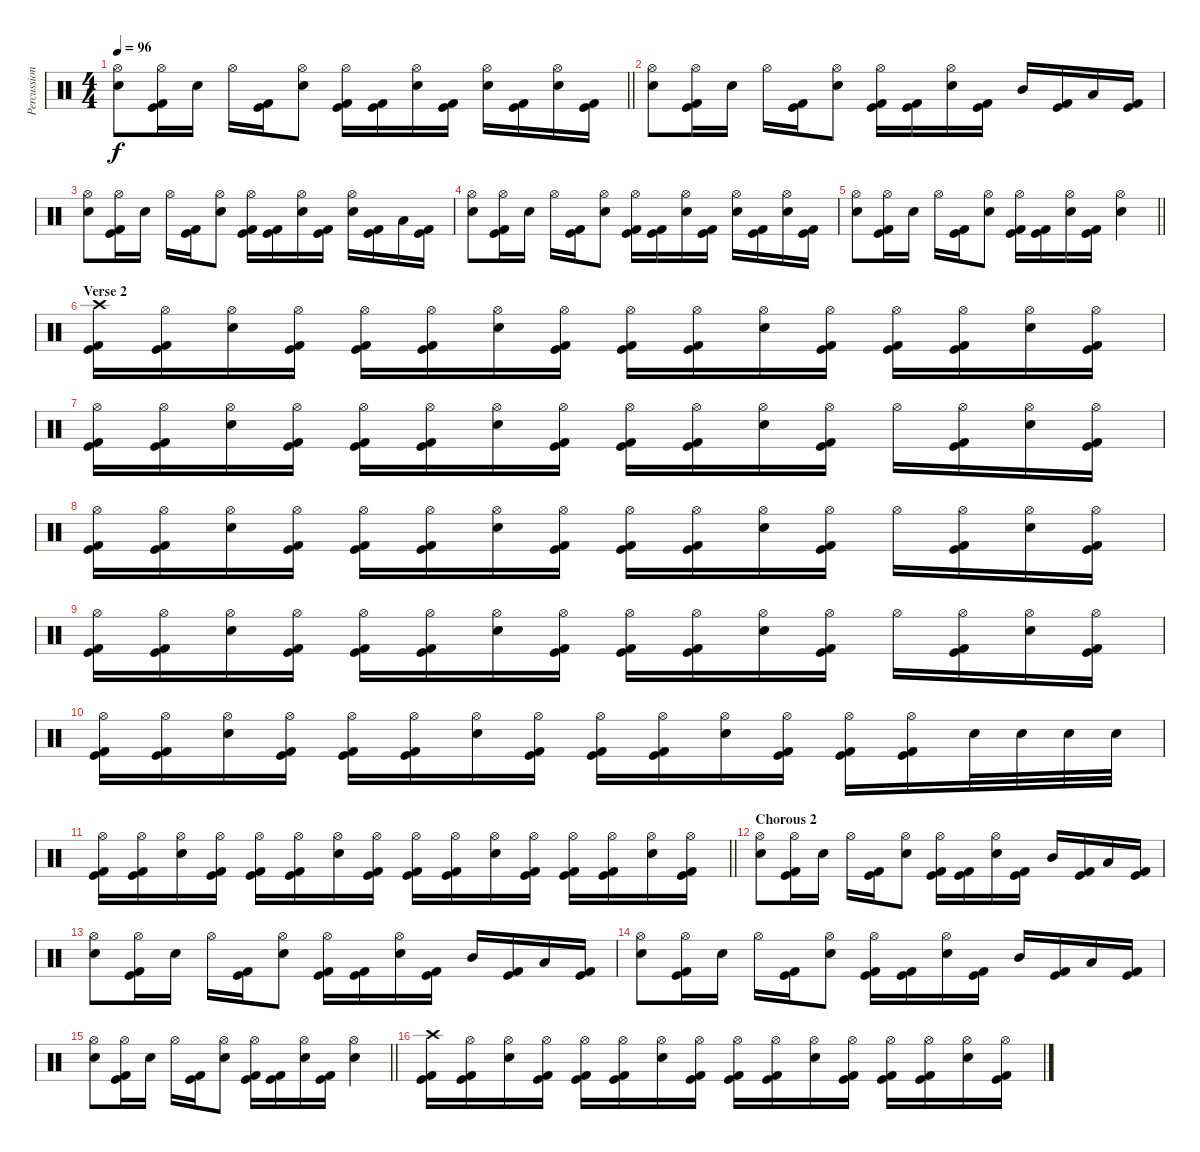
\track ("Percussion" "Percussion") {instrument percussion}
\staff {score}
\articulation defaults
\ts (4 4)
\tempo 96
\clef neutral
\barLineRight lightlight
\ks c
("Hi-Hat (open)" "Electric Snare (hit)").8{dy f} ("Hi-Hat (open)" "Kick (hit)" "Kick (hit) 2").16 "Electric Snare (hit)".16 "Hi-Hat (open)".16 ("Kick (hit)" "Kick (hit) 2").16 ("Hi-Hat (open)" "Electric Snare (hit)").8 ("Hi-Hat (open)" "Kick (hit)" "Kick (hit) 2").16 ("Kick (hit)" "Kick (hit) 2").16 ("Hi-Hat (open)" "Electric Snare (hit)").16 ("Kick (hit)" "Kick (hit) 2").16 ("Hi-Hat (open)" "Electric Snare (hit)").16 ("Kick (hit)" "Kick (hit) 2").16 ("Hi-Hat (open)" "Electric Snare (hit)").16 ("Kick (hit)" "Kick (hit) 2").16 |
\section ("" "")
("Hi-Hat (open)" "Electric Snare (hit)").8 ("Hi-Hat (open)" "Kick (hit)" "Kick (hit) 2").16 "Electric Snare (hit)".16 "Hi-Hat (open)".16 ("Kick (hit)" "Kick (hit) 2").16 ("Hi-Hat (open)" "Electric Snare (hit)").8 ("Hi-Hat (open)" "Kick (hit)" "Kick (hit) 2").16 ("Kick (hit)" "Kick (hit) 2").16 ("Hi-Hat (open)" "Electric Snare (hit)").16 ("Kick (hit)" "Kick (hit) 2").16 "Mid Tom (hit)".16 ("Kick (hit)" "Kick (hit) 2").16 "Low Tom (hit)".16 ("Kick (hit)" "Kick (hit) 2").16 |
("Hi-Hat (open)" "Electric Snare (hit)").8 ("Hi-Hat (open)" "Kick (hit)" "Kick (hit) 2").16 "Electric Snare (hit)".16 "Hi-Hat (open)".16 ("Kick (hit)" "Kick (hit) 2").16 ("Hi-Hat (open)" "Electric Snare (hit)").8 ("Hi-Hat (open)" "Kick (hit)" "Kick (hit) 2").16 ("Kick (hit)" "Kick (hit) 2").16 ("Hi-Hat (open)" "Electric Snare (hit)").16 ("Kick (hit)" "Kick (hit) 2").16 ("Hi-Hat (open)" "Electric Snare (hit)").16 ("Kick (hit)" "Kick (hit) 2").16 "Low Tom (hit)".16 ("Kick (hit)" "Kick (hit) 2").16 |
("Hi-Hat (open)" "Electric Snare (hit)").8 ("Hi-Hat (open)" "Kick (hit)" "Kick (hit) 2").16 "Electric Snare (hit)".16 "Hi-Hat (open)".16 ("Kick (hit)" "Kick (hit) 2").16 ("Hi-Hat (open)" "Electric Snare (hit)").8 ("Hi-Hat (open)" "Kick (hit)" "Kick (hit) 2").16 ("Kick (hit)" "Kick (hit) 2").16 ("Hi-Hat (open)" "Electric Snare (hit)").16 ("Kick (hit)" "Kick (hit) 2").16 ("Hi-Hat (open)" "Electric Snare (hit)").16 ("Kick (hit)" "Kick (hit) 2").16 ("Hi-Hat (open)" "Electric Snare (hit)").16 ("Kick (hit)" "Kick (hit) 2").16 |
\barLineRight lightlight
("Hi-Hat (open)" "Electric Snare (hit)").8 ("Hi-Hat (open)" "Kick (hit)" "Kick (hit) 2").16 "Electric Snare (hit)".16 "Hi-Hat (open)".16 ("Kick (hit)" "Kick (hit) 2").16 ("Hi-Hat (open)" "Electric Snare (hit)").8 ("Hi-Hat (open)" "Kick (hit)" "Kick (hit) 2").16 ("Kick (hit)" "Kick (hit) 2").16 ("Hi-Hat (open)" "Electric Snare (hit)").16 ("Kick (hit)" "Kick (hit) 2").16 ("Hi-Hat (open)" "Electric Snare (hit)").4 |
\section ("" "Verse 2")
("Crash high (hit)" "Kick (hit)" "Kick (hit) 2").16 ("Hi-Hat (open)" "Kick (hit)" "Kick (hit) 2").16 ("Hi-Hat (open)" "Electric Snare (hit)").16 ("Hi-Hat (open)" "Kick (hit)" "Kick (hit) 2").16 ("Hi-Hat (open)" "Kick (hit)" "Kick (hit) 2").16 ("Hi-Hat (open)" "Kick (hit)" "Kick (hit) 2").16 ("Hi-Hat (open)" "Electric Snare (hit)").16 ("Hi-Hat (open)" "Kick (hit)" "Kick (hit) 2").16 ("Hi-Hat (open)" "Kick (hit)" "Kick (hit) 2").16 ("Hi-Hat (open)" "Kick (hit)" "Kick (hit) 2").16 ("Hi-Hat (open)" "Electric Snare (hit)").16 ("Hi-Hat (open)" "Kick (hit)" "Kick (hit) 2").16 ("Hi-Hat (open)" "Kick (hit)" "Kick (hit) 2").16 ("Hi-Hat (open)" "Kick (hit)" "Kick (hit) 2").16 ("Hi-Hat (open)" "Electric Snare (hit)").16 ("Hi-Hat (open)" "Kick (hit)" "Kick (hit) 2").16 |
("Hi-Hat (open)" "Kick (hit)" "Kick (hit) 2").16 ("Hi-Hat (open)" "Kick (hit)" "Kick (hit) 2").16 ("Hi-Hat (open)" "Electric Snare (hit)").16 ("Hi-Hat (open)" "Kick (hit)" "Kick (hit) 2").16 ("Hi-Hat (open)" "Kick (hit)" "Kick (hit) 2").16 ("Hi-Hat (open)" "Kick (hit)" "Kick (hit) 2").16 ("Hi-Hat (open)" "Electric Snare (hit)").16 ("Hi-Hat (open)" "Kick (hit)" "Kick (hit) 2").16 ("Hi-Hat (open)" "Kick (hit)" "Kick (hit) 2").16 ("Hi-Hat (open)" "Kick (hit)" "Kick (hit) 2").16 ("Hi-Hat (open)" "Electric Snare (hit)").16 ("Hi-Hat (open)" "Kick (hit)" "Kick (hit) 2").16 "Hi-Hat (open)".16 ("Hi-Hat (open)" "Kick (hit)" "Kick (hit) 2").16 ("Hi-Hat (open)" "Electric Snare (hit)").16 ("Hi-Hat (open)" "Kick (hit)" "Kick (hit) 2").16 |
("Hi-Hat (open)" "Kick (hit)" "Kick (hit) 2").16 ("Hi-Hat (open)" "Kick (hit)" "Kick (hit) 2").16 ("Hi-Hat (open)" "Electric Snare (hit)").16 ("Hi-Hat (open)" "Kick (hit)" "Kick (hit) 2").16 ("Hi-Hat (open)" "Kick (hit)" "Kick (hit) 2").16 ("Hi-Hat (open)" "Kick (hit)" "Kick (hit) 2").16 ("Hi-Hat (open)" "Electric Snare (hit)").16 ("Hi-Hat (open)" "Kick (hit)" "Kick (hit) 2").16 ("Hi-Hat (open)" "Kick (hit)" "Kick (hit) 2").16 ("Hi-Hat (open)" "Kick (hit)" "Kick (hit) 2").16 ("Hi-Hat (open)" "Electric Snare (hit)").16 ("Hi-Hat (open)" "Kick (hit)" "Kick (hit) 2").16 "Hi-Hat (open)".16 ("Hi-Hat (open)" "Kick (hit)" "Kick (hit) 2").16 ("Hi-Hat (open)" "Electric Snare (hit)").16 ("Hi-Hat (open)" "Kick (hit)" "Kick (hit) 2").16 |
("Hi-Hat (open)" "Kick (hit)" "Kick (hit) 2").16 ("Hi-Hat (open)" "Kick (hit)" "Kick (hit) 2").16 ("Hi-Hat (open)" "Electric Snare (hit)").16 ("Hi-Hat (open)" "Kick (hit)" "Kick (hit) 2").16 ("Hi-Hat (open)" "Kick (hit)" "Kick (hit) 2").16 ("Hi-Hat (open)" "Kick (hit)" "Kick (hit) 2").16 ("Hi-Hat (open)" "Electric Snare (hit)").16 ("Hi-Hat (open)" "Kick (hit)" "Kick (hit) 2").16 ("Hi-Hat (open)" "Kick (hit)" "Kick (hit) 2").16 ("Hi-Hat (open)" "Kick (hit)" "Kick (hit) 2").16 ("Hi-Hat (open)" "Electric Snare (hit)").16 ("Hi-Hat (open)" "Kick (hit)" "Kick (hit) 2").16 "Hi-Hat (open)".16 ("Hi-Hat (open)" "Kick (hit)" "Kick (hit) 2").16 ("Hi-Hat (open)" "Electric Snare (hit)").16 ("Hi-Hat (open)" "Kick (hit)" "Kick (hit) 2").16 |
("Hi-Hat (open)" "Kick (hit)" "Kick (hit) 2").16 ("Hi-Hat (open)" "Kick (hit)" "Kick (hit) 2").16 ("Hi-Hat (open)" "Electric Snare (hit)").16 ("Hi-Hat (open)" "Kick (hit)" "Kick (hit) 2").16 ("Hi-Hat (open)" "Kick (hit)" "Kick (hit) 2").16 ("Hi-Hat (open)" "Kick (hit)" "Kick (hit) 2").16 ("Hi-Hat (open)" "Electric Snare (hit)").16 ("Hi-Hat (open)" "Kick (hit)" "Kick (hit) 2").16 ("Hi-Hat (open)" "Kick (hit)" "Kick (hit) 2").16 ("Hi-Hat (open)" "Kick (hit)" "Kick (hit) 2").16 ("Hi-Hat (open)" "Electric Snare (hit)").16 ("Hi-Hat (open)" "Kick (hit)" "Kick (hit) 2").16 ("Hi-Hat (open)" "Kick (hit)" "Kick (hit) 2").16 ("Hi-Hat (open)" "Kick (hit)" "Kick (hit) 2").16 "Electric Snare (hit)".32 "Electric Snare (hit)".32 "Electric Snare (hit)".32 "Electric Snare (hit)".32 |
\barLineRight lightlight
("Hi-Hat (open)" "Kick (hit)" "Kick (hit) 2").16 ("Hi-Hat (open)" "Kick (hit)" "Kick (hit) 2").16 ("Hi-Hat (open)" "Electric Snare (hit)").16 ("Hi-Hat (open)" "Kick (hit)" "Kick (hit) 2").16 ("Hi-Hat (open)" "Kick (hit)" "Kick (hit) 2").16 ("Hi-Hat (open)" "Kick (hit)" "Kick (hit) 2").16 ("Hi-Hat (open)" "Electric Snare (hit)").16 ("Hi-Hat (open)" "Kick (hit)" "Kick (hit) 2").16 ("Hi-Hat (open)" "Kick (hit)" "Kick (hit) 2").16 ("Hi-Hat (open)" "Kick (hit)" "Kick (hit) 2").16 ("Hi-Hat (open)" "Electric Snare (hit)").16 ("Hi-Hat (open)" "Kick (hit)" "Kick (hit) 2").16 ("Hi-Hat (open)" "Kick (hit)" "Kick (hit) 2").16 ("Hi-Hat (open)" "Kick (hit)" "Kick (hit) 2").16 ("Hi-Hat (open)" "Electric Snare (hit)").16 ("Hi-Hat (open)" "Kick (hit)" "Kick (hit) 2").16 |
\section ("" "Chorous 2")
("Hi-Hat (open)" "Electric Snare (hit)").8 ("Hi-Hat (open)" "Kick (hit)" "Kick (hit) 2").16 "Electric Snare (hit)".16 "Hi-Hat (open)".16 ("Kick (hit)" "Kick (hit) 2").16 ("Hi-Hat (open)" "Electric Snare (hit)").8 ("Hi-Hat (open)" "Kick (hit)" "Kick (hit) 2").16 ("Kick (hit)" "Kick (hit) 2").16 ("Hi-Hat (open)" "Electric Snare (hit)").16 ("Kick (hit)" "Kick (hit) 2").16 "Mid Tom (hit)".16 ("Kick (hit)" "Kick (hit) 2").16 "Low Tom (hit)".16 ("Kick (hit)" "Kick (hit) 2").16 |
("Hi-Hat (open)" "Electric Snare (hit)").8 ("Hi-Hat (open)" "Kick (hit)" "Kick (hit) 2").16 "Electric Snare (hit)".16 "Hi-Hat (open)".16 ("Kick (hit)" "Kick (hit) 2").16 ("Hi-Hat (open)" "Electric Snare (hit)").8 ("Hi-Hat (open)" "Kick (hit)" "Kick (hit) 2").16 ("Kick (hit)" "Kick (hit) 2").16 ("Hi-Hat (open)" "Electric Snare (hit)").16 ("Kick (hit)" "Kick (hit) 2").16 "Mid Tom (hit)".16 ("Kick (hit)" "Kick (hit) 2").16 "Low Tom (hit)".16 ("Kick (hit)" "Kick (hit) 2").16 |
("Hi-Hat (open)" "Electric Snare (hit)").8 ("Hi-Hat (open)" "Kick (hit)" "Kick (hit) 2").16 "Electric Snare (hit)".16 "Hi-Hat (open)".16 ("Kick (hit)" "Kick (hit) 2").16 ("Hi-Hat (open)" "Electric Snare (hit)").8 ("Hi-Hat (open)" "Kick (hit)" "Kick (hit) 2").16 ("Kick (hit)" "Kick (hit) 2").16 ("Hi-Hat (open)" "Electric Snare (hit)").16 ("Kick (hit)" "Kick (hit) 2").16 "Mid Tom (hit)".16 ("Kick (hit)" "Kick (hit) 2").16 "Low Tom (hit)".16 ("Kick (hit)" "Kick (hit) 2").16 |
\barLineRight lightlight
("Hi-Hat (open)" "Electric Snare (hit)").8 ("Hi-Hat (open)" "Kick (hit)" "Kick (hit) 2").16 "Electric Snare (hit)".16 "Hi-Hat (open)".16 ("Kick (hit)" "Kick (hit) 2").16 ("Hi-Hat (open)" "Electric Snare (hit)").8 ("Hi-Hat (open)" "Kick (hit)" "Kick (hit) 2").16 ("Kick (hit)" "Kick (hit) 2").16 ("Hi-Hat (open)" "Electric Snare (hit)").16 ("Kick (hit)" "Kick (hit) 2").16 ("Hi-Hat (open)" "Electric Snare (hit)").4 |
\section ("" "")
("Crash high (hit)" "Kick (hit)" "Kick (hit) 2").16 ("Hi-Hat (open)" "Kick (hit)" "Kick (hit) 2").16 ("Hi-Hat (open)" "Electric Snare (hit)").16 ("Hi-Hat (open)" "Kick (hit)" "Kick (hit) 2").16 ("Hi-Hat (open)" "Kick (hit)" "Kick (hit) 2").16 ("Hi-Hat (open)" "Kick (hit)" "Kick (hit) 2").16 ("Hi-Hat (open)" "Electric Snare (hit)").16 ("Hi-Hat (open)" "Kick (hit)" "Kick (hit) 2").16 ("Hi-Hat (open)" "Kick (hit)" "Kick (hit) 2").16 ("Hi-Hat (open)" "Kick (hit)" "Kick (hit) 2").16 ("Hi-Hat (open)" "Electric Snare (hit)").16 ("Hi-Hat (open)" "Kick (hit)" "Kick (hit) 2").16 ("Hi-Hat (open)" "Kick (hit)" "Kick (hit) 2").16 ("Hi-Hat (open)" "Kick (hit)" "Kick (hit) 2").16 ("Hi-Hat (open)" "Electric Snare (hit)").16 ("Hi-Hat (open)" "Kick (hit)" "Kick (hit) 2").16
